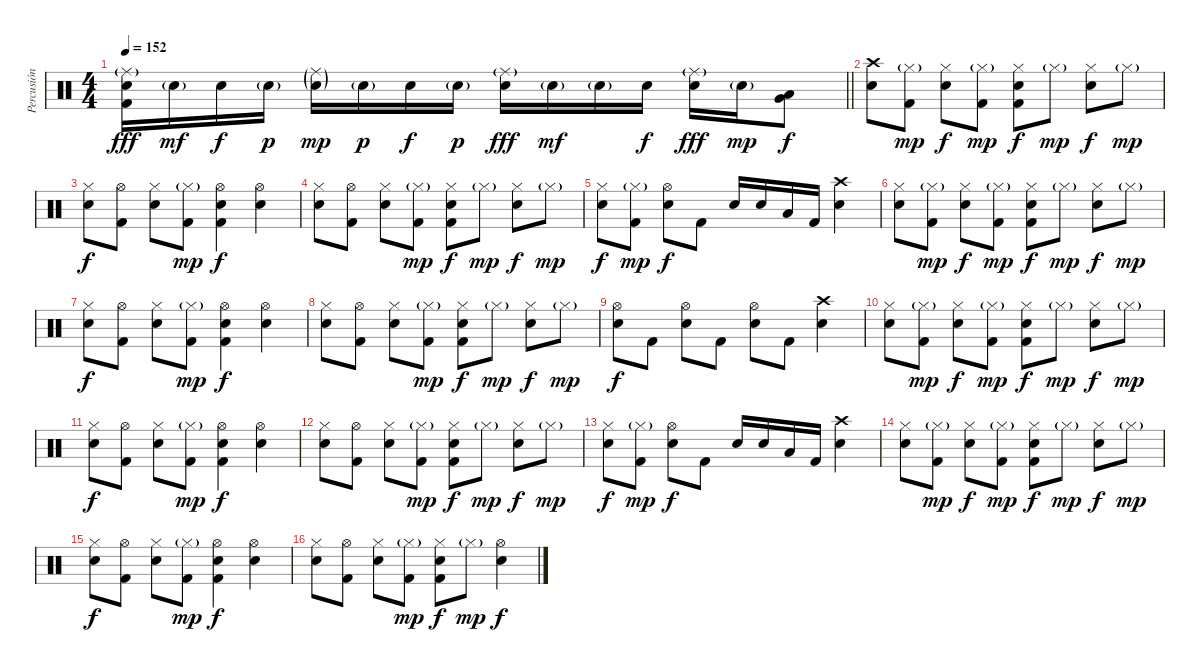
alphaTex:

\track ("Percusión" "Percusión") {instrument percussion}
\staff {score}
\articulation defaults
\ts (4 4)
\tempo 152
\clef neutral
\barLineRight lightlight
\ks c
("Ride (middle)"{g} "Snare (hit) 2" "Kick (hit) 2").16{dy fff} "Snare (hit) 2"{g}.16{dy mf} "Snare (hit) 2".16{dy f} "Snare (hit) 2"{g}.16{dy p} ("Ride (middle)"{g} "Snare (hit) 2"{g}).16{dy mp} "Snare (hit) 2"{g}.16{dy p} "Snare (hit) 2".16{dy f} "Snare (hit) 2"{g}.16{dy p} ("Ride (middle)"{g} "Snare (hit) 2").16{dy fff} "Snare (hit) 2"{g}.16{dy mf} "Snare (hit) 2"{g}.16 "Snare (hit) 2".16{dy f} ("Ride (middle)"{g} "Snare (hit) 2").16{dy fff} "Snare (hit) 2"{g}.16{dy mp} ("Low Tom (hit)" "Very Low Tom (hit)").8{dy f} |
("Crash high (hit)" "Snare (hit) 2").8 ("Hi-Hat (closed)"{g} "Kick (hit) 2").8{dy mp} ("Hi-Hat (closed)" "Snare (hit) 2").8{dy f} ("Hi-Hat (closed)"{g} "Kick (hit) 2").8{dy mp} ("Hi-Hat (closed)" "Snare (hit) 2" "Kick (hit) 2").8{dy f} "Hi-Hat (closed)"{g}.8{dy mp} ("Hi-Hat (closed)" "Snare (hit) 2").8{dy f} "Hi-Hat (closed)"{g}.8{dy mp} |
("Hi-Hat (closed)" "Snare (hit) 2").8{dy f} ("Hi-Hat (open)" "Kick (hit) 2").8 ("Hi-Hat (closed)" "Snare (hit) 2").8 ("Hi-Hat (closed)"{g} "Kick (hit) 2").8{dy mp} ("Hi-Hat (open)" "Snare (hit) 2" "Kick (hit) 2").4{dy f} ("Hi-Hat (open)" "Snare (hit) 2").4 |
("Hi-Hat (closed)" "Snare (hit) 2").8 ("Hi-Hat (open)" "Kick (hit) 2").8 ("Hi-Hat (closed)" "Snare (hit) 2").8 ("Hi-Hat (closed)"{g} "Kick (hit) 2").8{dy mp} ("Hi-Hat (closed)" "Snare (hit) 2" "Kick (hit) 2").8{dy f} "Hi-Hat (closed)"{g}.8{dy mp} ("Hi-Hat (closed)" "Snare (hit) 2").8{dy f} "Hi-Hat (closed)"{g}.8{dy mp} |
("Hi-Hat (closed)" "Snare (hit) 2").8{dy f} ("Hi-Hat (closed)"{g} "Kick (hit) 2").8{dy mp} ("Hi-Hat (open)" "Snare (hit) 2").8{dy f} "Kick (hit) 2".8 "Snare (hit) 2".16 "Snare (hit) 2".16 "Low Tom (hit)".16 "Kick (hit) 2".16 ("Crash high (hit)" "Snare (hit) 2").4 |
("Hi-Hat (closed)" "Snare (hit) 2").8 ("Hi-Hat (closed)"{g} "Kick (hit) 2").8{dy mp} ("Hi-Hat (closed)" "Snare (hit) 2").8{dy f} ("Hi-Hat (closed)"{g} "Kick (hit) 2").8{dy mp} ("Hi-Hat (closed)" "Snare (hit) 2" "Kick (hit) 2").8{dy f} "Hi-Hat (closed)"{g}.8{dy mp} ("Hi-Hat (closed)" "Snare (hit) 2").8{dy f} "Hi-Hat (closed)"{g}.8{dy mp} |
("Hi-Hat (closed)" "Snare (hit) 2").8{dy f} ("Hi-Hat (open)" "Kick (hit) 2").8 ("Hi-Hat (closed)" "Snare (hit) 2").8 ("Hi-Hat (closed)"{g} "Kick (hit) 2").8{dy mp} ("Hi-Hat (open)" "Snare (hit) 2" "Kick (hit) 2").4{dy f} ("Hi-Hat (open)" "Snare (hit) 2").4 |
("Hi-Hat (closed)" "Snare (hit) 2").8 ("Hi-Hat (open)" "Kick (hit) 2").8 ("Hi-Hat (closed)" "Snare (hit) 2").8 ("Hi-Hat (closed)"{g} "Kick (hit) 2").8{dy mp} ("Hi-Hat (closed)" "Snare (hit) 2" "Kick (hit) 2").8{dy f} "Hi-Hat (closed)"{g}.8{dy mp} ("Hi-Hat (closed)" "Snare (hit) 2").8{dy f} "Hi-Hat (closed)"{g}.8{dy mp} |
("Hi-Hat (open)" "Snare (hit) 2").8{dy f} "Kick (hit) 2".8 ("Hi-Hat (open)" "Snare (hit) 2").8 "Kick (hit) 2".8 ("Hi-Hat (open)" "Snare (hit) 2").8 "Kick (hit) 2".8 ("Crash high (hit)" "Snare (hit) 2").4 |
("Hi-Hat (closed)" "Snare (hit) 2").8 ("Hi-Hat (closed)"{g} "Kick (hit) 2").8{dy mp} ("Hi-Hat (closed)" "Snare (hit) 2").8{dy f} ("Hi-Hat (closed)"{g} "Kick (hit) 2").8{dy mp} ("Hi-Hat (closed)" "Snare (hit) 2" "Kick (hit) 2").8{dy f} "Hi-Hat (closed)"{g}.8{dy mp} ("Hi-Hat (closed)" "Snare (hit) 2").8{dy f} "Hi-Hat (closed)"{g}.8{dy mp} |
("Hi-Hat (closed)" "Snare (hit) 2").8{dy f} ("Hi-Hat (open)" "Kick (hit) 2").8 ("Hi-Hat (closed)" "Snare (hit) 2").8 ("Hi-Hat (closed)"{g} "Kick (hit) 2").8{dy mp} ("Hi-Hat (open)" "Snare (hit) 2" "Kick (hit) 2").4{dy f} ("Hi-Hat (open)" "Snare (hit) 2").4 |
("Hi-Hat (closed)" "Snare (hit) 2").8 ("Hi-Hat (open)" "Kick (hit) 2").8 ("Hi-Hat (closed)" "Snare (hit) 2").8 ("Hi-Hat (closed)"{g} "Kick (hit) 2").8{dy mp} ("Hi-Hat (closed)" "Snare (hit) 2" "Kick (hit) 2").8{dy f} "Hi-Hat (closed)"{g}.8{dy mp} ("Hi-Hat (closed)" "Snare (hit) 2").8{dy f} "Hi-Hat (closed)"{g}.8{dy mp} |
("Hi-Hat (closed)" "Snare (hit) 2").8{dy f} ("Hi-Hat (closed)"{g} "Kick (hit) 2").8{dy mp} ("Hi-Hat (open)" "Snare (hit) 2").8{dy f} "Kick (hit) 2".8 "Snare (hit) 2".16 "Snare (hit) 2".16 "Low Tom (hit)".16 "Kick (hit) 2".16 ("Crash high (hit)" "Snare (hit) 2").4 |
("Hi-Hat (closed)" "Snare (hit) 2").8 ("Hi-Hat (closed)"{g} "Kick (hit) 2").8{dy mp} ("Hi-Hat (closed)" "Snare (hit) 2").8{dy f} ("Hi-Hat (closed)"{g} "Kick (hit) 2").8{dy mp} ("Hi-Hat (closed)" "Snare (hit) 2" "Kick (hit) 2").8{dy f} "Hi-Hat (closed)"{g}.8{dy mp} ("Hi-Hat (closed)" "Snare (hit) 2").8{dy f} "Hi-Hat (closed)"{g}.8{dy mp} |
("Hi-Hat (closed)" "Snare (hit) 2").8{dy f} ("Hi-Hat (open)" "Kick (hit) 2").8 ("Hi-Hat (closed)" "Snare (hit) 2").8 ("Hi-Hat (closed)"{g} "Kick (hit) 2").8{dy mp} ("Hi-Hat (open)" "Snare (hit) 2" "Kick (hit) 2").4{dy f} ("Hi-Hat (open)" "Snare (hit) 2").4 |
("Hi-Hat (closed)" "Snare (hit) 2").8 ("Hi-Hat (open)" "Kick (hit) 2").8 ("Hi-Hat (closed)" "Snare (hit) 2").8 ("Hi-Hat (closed)"{g} "Kick (hit) 2").8{dy mp} ("Hi-Hat (closed)" "Snare (hit) 2" "Kick (hit) 2").8{dy f} "Hi-Hat (closed)"{g}.8{dy mp} ("Hi-Hat (open)" "Snare (hit) 2").4{dy f}
